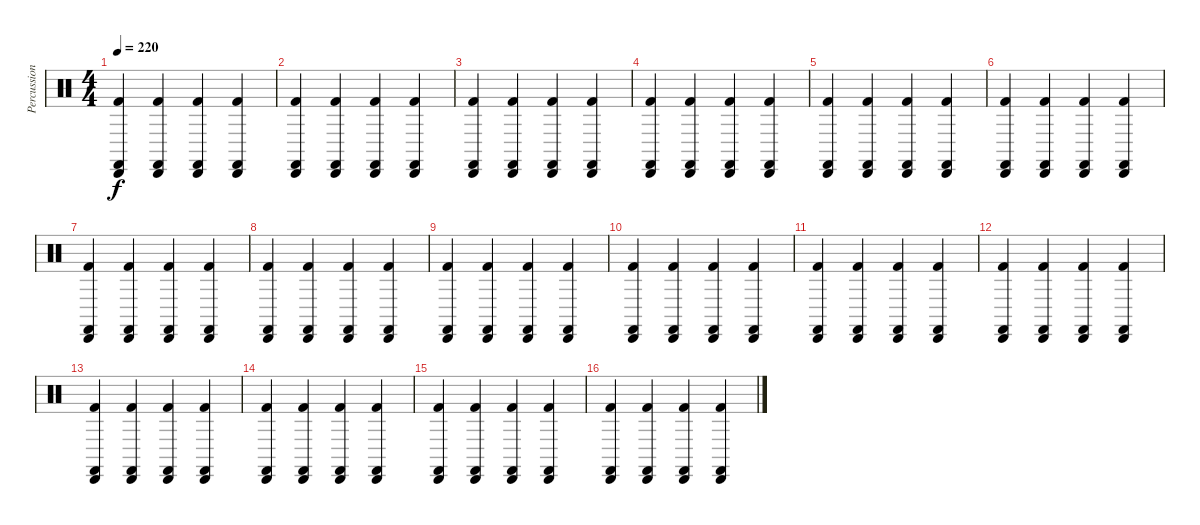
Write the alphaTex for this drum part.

\track ("Percussions" "Percussion") {instrument percussion}
\staff {score}
\articulation defaults
\ts (4 4)
\tempo 220
\clef neutral
\ks c
("Kick (hit) 2" "Cabasa (hit)" "Castanets (hit)").4{dy f} ("Kick (hit) 2" "Cabasa (hit)" "Castanets (hit)").4 ("Kick (hit) 2" "Cabasa (hit)" "Castanets (hit)").4 ("Kick (hit) 2" "Cabasa (hit)" "Castanets (hit)").4 |
("Kick (hit) 2" "Cabasa (hit)" "Castanets (hit)").4 ("Kick (hit) 2" "Cabasa (hit)" "Castanets (hit)").4 ("Kick (hit) 2" "Cabasa (hit)" "Castanets (hit)").4 ("Kick (hit) 2" "Cabasa (hit)" "Castanets (hit)").4 |
("Kick (hit) 2" "Cabasa (hit)" "Castanets (hit)").4 ("Kick (hit) 2" "Cabasa (hit)" "Castanets (hit)").4 ("Kick (hit) 2" "Cabasa (hit)" "Castanets (hit)").4 ("Kick (hit) 2" "Cabasa (hit)" "Castanets (hit)").4 |
("Kick (hit) 2" "Cabasa (hit)" "Castanets (hit)").4 ("Kick (hit) 2" "Cabasa (hit)" "Castanets (hit)").4 ("Kick (hit) 2" "Cabasa (hit)" "Castanets (hit)").4 ("Kick (hit) 2" "Cabasa (hit)" "Castanets (hit)").4 |
("Kick (hit) 2" "Cabasa (hit)" "Castanets (hit)").4 ("Kick (hit) 2" "Cabasa (hit)" "Castanets (hit)").4 ("Kick (hit) 2" "Cabasa (hit)" "Castanets (hit)").4 ("Kick (hit) 2" "Cabasa (hit)" "Castanets (hit)").4 |
("Kick (hit) 2" "Cabasa (hit)" "Castanets (hit)").4 ("Kick (hit) 2" "Cabasa (hit)" "Castanets (hit)").4 ("Kick (hit) 2" "Cabasa (hit)" "Castanets (hit)").4 ("Kick (hit) 2" "Cabasa (hit)" "Castanets (hit)").4 |
("Kick (hit) 2" "Cabasa (hit)" "Castanets (hit)").4 ("Kick (hit) 2" "Cabasa (hit)" "Castanets (hit)").4 ("Kick (hit) 2" "Cabasa (hit)" "Castanets (hit)").4 ("Kick (hit) 2" "Cabasa (hit)" "Castanets (hit)").4 |
("Kick (hit) 2" "Cabasa (hit)" "Castanets (hit)").4 ("Kick (hit) 2" "Cabasa (hit)" "Castanets (hit)").4 ("Kick (hit) 2" "Cabasa (hit)" "Castanets (hit)").4 ("Kick (hit) 2" "Cabasa (hit)" "Castanets (hit)").4 |
("Kick (hit) 2" "Cabasa (hit)" "Castanets (hit)").4 ("Kick (hit) 2" "Cabasa (hit)" "Castanets (hit)").4 ("Kick (hit) 2" "Cabasa (hit)" "Castanets (hit)").4 ("Kick (hit) 2" "Cabasa (hit)" "Castanets (hit)").4 |
("Kick (hit) 2" "Cabasa (hit)" "Castanets (hit)").4 ("Kick (hit) 2" "Cabasa (hit)" "Castanets (hit)").4 ("Kick (hit) 2" "Cabasa (hit)" "Castanets (hit)").4 ("Kick (hit) 2" "Cabasa (hit)" "Castanets (hit)").4 |
("Kick (hit) 2" "Cabasa (hit)" "Castanets (hit)").4 ("Kick (hit) 2" "Cabasa (hit)" "Castanets (hit)").4 ("Kick (hit) 2" "Cabasa (hit)" "Castanets (hit)").4 ("Kick (hit) 2" "Cabasa (hit)" "Castanets (hit)").4 |
("Kick (hit) 2" "Cabasa (hit)" "Castanets (hit)").4 ("Kick (hit) 2" "Cabasa (hit)" "Castanets (hit)").4 ("Kick (hit) 2" "Cabasa (hit)" "Castanets (hit)").4 ("Kick (hit) 2" "Cabasa (hit)" "Castanets (hit)").4 |
("Kick (hit) 2" "Cabasa (hit)" "Castanets (hit)").4 ("Kick (hit) 2" "Cabasa (hit)" "Castanets (hit)").4 ("Kick (hit) 2" "Cabasa (hit)" "Castanets (hit)").4 ("Kick (hit) 2" "Cabasa (hit)" "Castanets (hit)").4 |
("Kick (hit) 2" "Cabasa (hit)" "Castanets (hit)").4 ("Kick (hit) 2" "Cabasa (hit)" "Castanets (hit)").4 ("Kick (hit) 2" "Cabasa (hit)" "Castanets (hit)").4 ("Kick (hit) 2" "Cabasa (hit)" "Castanets (hit)").4 |
("Kick (hit) 2" "Cabasa (hit)" "Castanets (hit)").4 ("Kick (hit) 2" "Cabasa (hit)" "Castanets (hit)").4 ("Kick (hit) 2" "Cabasa (hit)" "Castanets (hit)").4 ("Kick (hit) 2" "Cabasa (hit)" "Castanets (hit)").4 |
("Kick (hit) 2" "Cabasa (hit)" "Castanets (hit)").4 ("Kick (hit) 2" "Cabasa (hit)" "Castanets (hit)").4 ("Kick (hit) 2" "Cabasa (hit)" "Castanets (hit)").4 ("Kick (hit) 2" "Cabasa (hit)" "Castanets (hit)").4
